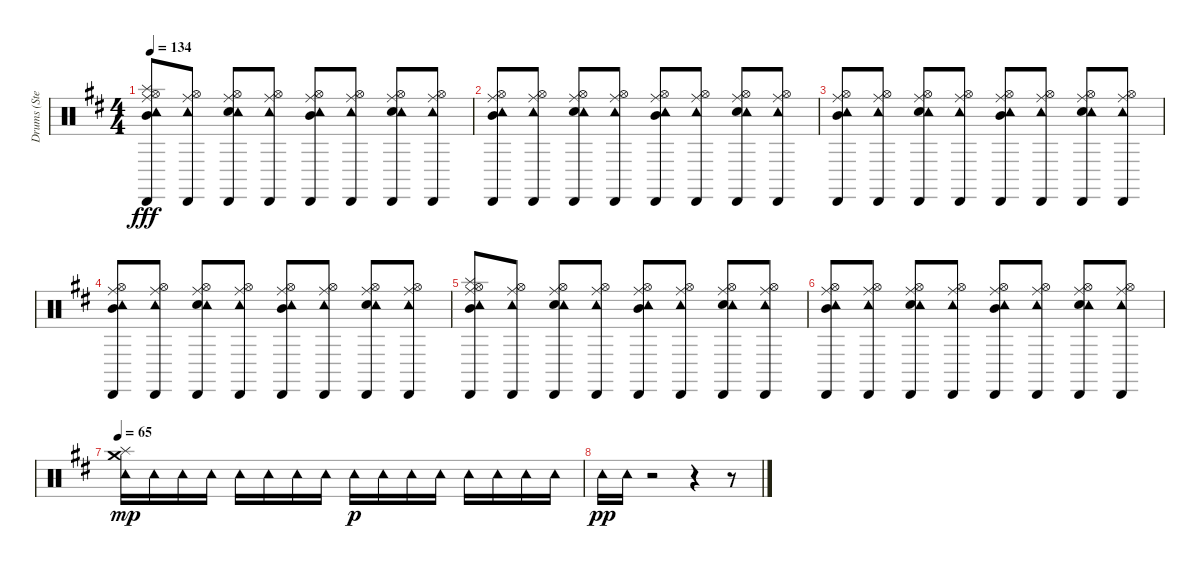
\track ("Drums (Steven)" "Drums (Ste") {instrument percussion}
\staff {score}
\articulation defaults
\ts (4 4)
\tempo 134
\clef neutral
\ks d
("Hi-Hat (open)" "Mid Tom (hit)" "Splash (hit)" "Ride (middle)" "Tambourine (hit)" "Cabasa (hit)").8{dy fff} ("Hi-Hat (open)" "Ride (middle)" "Tambourine (hit)" "Cabasa (hit)").8 ("Electric Snare (hit)" "Hi-Hat (open)" "Ride (middle)" "Tambourine (hit)" "Cabasa (hit)").8 ("Hi-Hat (open)" "Ride (middle)" "Tambourine (hit)" "Cabasa (hit)").8 ("Hi-Hat (open)" "Mid Tom (hit)" "Ride (middle)" "Tambourine (hit)" "Cabasa (hit)").8 ("Hi-Hat (open)" "Ride (middle)" "Tambourine (hit)" "Cabasa (hit)").8 ("Electric Snare (hit)" "Hi-Hat (open)" "Ride (middle)" "Tambourine (hit)" "Cabasa (hit)").8 ("Hi-Hat (open)" "Ride (middle)" "Tambourine (hit)" "Cabasa (hit)").8 |
("Hi-Hat (open)" "Mid Tom (hit)" "Ride (middle)" "Tambourine (hit)" "Cabasa (hit)").8 ("Hi-Hat (open)" "Ride (middle)" "Tambourine (hit)" "Cabasa (hit)").8 ("Electric Snare (hit)" "Hi-Hat (open)" "Ride (middle)" "Tambourine (hit)" "Cabasa (hit)").8 ("Hi-Hat (open)" "Ride (middle)" "Tambourine (hit)" "Cabasa (hit)").8 ("Hi-Hat (open)" "Mid Tom (hit)" "Ride (middle)" "Tambourine (hit)" "Cabasa (hit)").8 ("Hi-Hat (open)" "Ride (middle)" "Tambourine (hit)" "Cabasa (hit)").8 ("Electric Snare (hit)" "Hi-Hat (open)" "Ride (middle)" "Tambourine (hit)" "Cabasa (hit)").8 ("Hi-Hat (open)" "Ride (middle)" "Tambourine (hit)" "Cabasa (hit)").8 |
("Hi-Hat (open)" "Mid Tom (hit)" "Ride (middle)" "Tambourine (hit)" "Cabasa (hit)").8 ("Hi-Hat (open)" "Ride (middle)" "Tambourine (hit)" "Cabasa (hit)").8 ("Electric Snare (hit)" "Hi-Hat (open)" "Ride (middle)" "Tambourine (hit)" "Cabasa (hit)").8 ("Hi-Hat (open)" "Ride (middle)" "Tambourine (hit)" "Cabasa (hit)").8 ("Hi-Hat (open)" "Mid Tom (hit)" "Ride (middle)" "Tambourine (hit)" "Cabasa (hit)").8 ("Hi-Hat (open)" "Ride (middle)" "Tambourine (hit)" "Cabasa (hit)").8 ("Electric Snare (hit)" "Hi-Hat (open)" "Ride (middle)" "Tambourine (hit)" "Cabasa (hit)").8 ("Hi-Hat (open)" "Ride (middle)" "Tambourine (hit)" "Cabasa (hit)").8 |
("Hi-Hat (open)" "Mid Tom (hit)" "Ride (middle)" "Tambourine (hit)" "Cabasa (hit)").8 ("Hi-Hat (open)" "Ride (middle)" "Tambourine (hit)" "Cabasa (hit)").8 ("Electric Snare (hit)" "Hi-Hat (open)" "Ride (middle)" "Tambourine (hit)" "Cabasa (hit)").8 ("Hi-Hat (open)" "Ride (middle)" "Tambourine (hit)" "Cabasa (hit)").8 ("Hi-Hat (open)" "Mid Tom (hit)" "Ride (middle)" "Tambourine (hit)" "Cabasa (hit)").8 ("Hi-Hat (open)" "Ride (middle)" "Tambourine (hit)" "Cabasa (hit)").8 ("Electric Snare (hit)" "Hi-Hat (open)" "Ride (middle)" "Tambourine (hit)" "Cabasa (hit)").8 ("Hi-Hat (open)" "Ride (middle)" "Tambourine (hit)" "Cabasa (hit)").8 |
("Hi-Hat (open)" "Mid Tom (hit)" "Splash (hit)" "Ride (middle)" "Tambourine (hit)" "Cabasa (hit)").8 ("Hi-Hat (open)" "Ride (middle)" "Tambourine (hit)" "Cabasa (hit)").8 ("Electric Snare (hit)" "Hi-Hat (open)" "Ride (middle)" "Tambourine (hit)" "Cabasa (hit)").8 ("Hi-Hat (open)" "Ride (middle)" "Tambourine (hit)" "Cabasa (hit)").8 ("Hi-Hat (open)" "Mid Tom (hit)" "Ride (middle)" "Tambourine (hit)" "Cabasa (hit)").8 ("Hi-Hat (open)" "Ride (middle)" "Tambourine (hit)" "Cabasa (hit)").8 ("Electric Snare (hit)" "Hi-Hat (open)" "Ride (middle)" "Tambourine (hit)" "Cabasa (hit)").8 ("Hi-Hat (open)" "Ride (middle)" "Tambourine (hit)" "Cabasa (hit)").8 |
("Hi-Hat (open)" "Mid Tom (hit)" "Ride (middle)" "Tambourine (hit)" "Cabasa (hit)").8 ("Hi-Hat (open)" "Ride (middle)" "Tambourine (hit)" "Cabasa (hit)").8 ("Electric Snare (hit)" "Hi-Hat (open)" "Ride (middle)" "Tambourine (hit)" "Cabasa (hit)").8 ("Hi-Hat (open)" "Ride (middle)" "Tambourine (hit)" "Cabasa (hit)").8 ("Hi-Hat (open)" "Mid Tom (hit)" "Ride (middle)" "Tambourine (hit)" "Cabasa (hit)").8 ("Hi-Hat (open)" "Ride (middle)" "Tambourine (hit)" "Cabasa (hit)").8 ("Electric Snare (hit)" "Hi-Hat (open)" "Ride (middle)" "Tambourine (hit)" "Cabasa (hit)").8 ("Hi-Hat (open)" "Ride (middle)" "Tambourine (hit)" "Cabasa (hit)").8 |
\tempo 65
("Splash (hit)" "Crash medium (hit)" "Tambourine (hit)").16{dy mp} "Tambourine (hit)".16 "Tambourine (hit)".16 "Tambourine (hit)".16 "Tambourine (hit)".16 "Tambourine (hit)".16 "Tambourine (hit)".16 "Tambourine (hit)".16 "Tambourine (hit)".16{dy p} "Tambourine (hit)".16 "Tambourine (hit)".16 "Tambourine (hit)".16 "Tambourine (hit)".16 "Tambourine (hit)".16 "Tambourine (hit)".16 "Tambourine (hit)".16 |
"Tambourine (hit)".16{dy pp} "Tambourine (hit)".16 r.2 r.4 r.8
